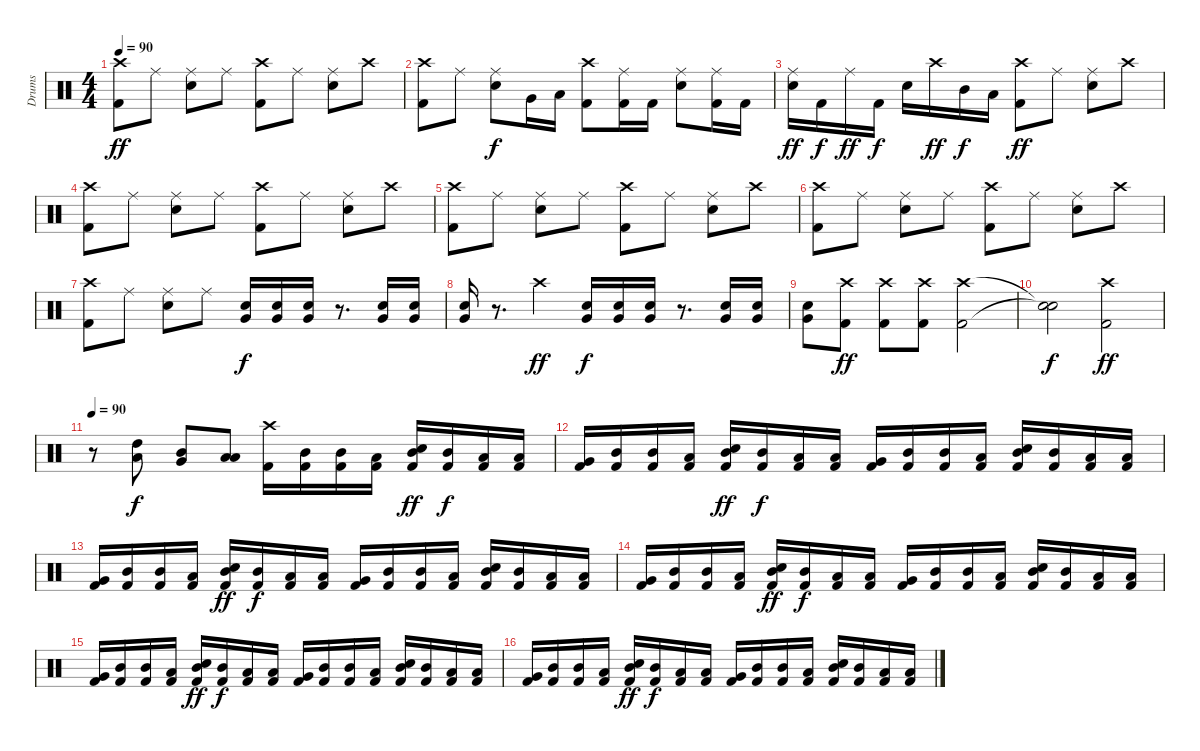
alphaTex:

\track ("Drums" "Drums") {instrument percussion}
\staff {score}
\articulation defaults
\ts (4 4)
\tempo 90
\clef neutral
\ks c
("Crash high (hit)" "Kick (hit) 2").8{dy ff} "Ride (middle)".8 ("Ride (middle)" "Electric Snare (hit)").8 "Ride (middle)".8 ("Crash high (hit)" "Kick (hit) 2").8 "Ride (middle)".8 ("Ride (middle)" "Electric Snare (hit)").8 "Crash high (hit)".8 |
("Crash high (hit)" "Kick (hit) 2").8 "Ride (middle)".8 ("Ride (middle)" "Electric Snare (hit)").8{dy f} "Very Low Tom (hit)".16 "Low Floor Tom (hit)".16 ("Crash high (hit)" "Kick (hit) 2").8 ("Ride (middle)" "Kick (hit) 2").16 "Kick (hit) 2".16 ("Ride (middle)" "Electric Snare (hit)").8 ("Ride (middle)" "Kick (hit) 2").16 "Kick (hit) 2".16 |
("Ride (middle)" "Electric Snare (hit)").16{dy ff} "Kick (hit) 2".16{dy f} "Ride (middle)".16{dy ff} "Kick (hit) 2".16{dy f} "Electric Snare (hit)".16 "Crash high (hit)".16{dy ff} "Mid Tom (hit)".16{dy f} "Low Tom (hit)".16 ("Crash high (hit)" "Kick (hit) 2").8{dy ff} "Ride (middle)".8 ("Ride (middle)" "Electric Snare (hit)").8 "Crash high (hit)".8 |
("Crash high (hit)" "Kick (hit) 2").8 "Ride (middle)".8 ("Ride (middle)" "Electric Snare (hit)").8 "Ride (middle)".8 ("Crash high (hit)" "Kick (hit) 2").8 "Ride (middle)".8 ("Ride (middle)" "Electric Snare (hit)").8 "Crash high (hit)".8 |
("Crash high (hit)" "Kick (hit) 2").8 "Ride (middle)".8 ("Ride (middle)" "Electric Snare (hit)").8 "Ride (middle)".8 ("Crash high (hit)" "Kick (hit) 2").8 "Ride (middle)".8 ("Ride (middle)" "Electric Snare (hit)").8 "Crash high (hit)".8 |
("Crash high (hit)" "Kick (hit) 2").8 "Ride (middle)".8 ("Ride (middle)" "Electric Snare (hit)").8 "Ride (middle)".8 ("Crash high (hit)" "Kick (hit) 2").8 "Ride (middle)".8 ("Ride (middle)" "Electric Snare (hit)").8 "Crash high (hit)".8 |
("Crash high (hit)" "Kick (hit) 2").8 "Ride (middle)".8 ("Ride (middle)" "Electric Snare (hit)").8 "Ride (middle)".8 ("Very Low Tom (hit)" "Electric Snare (hit)").16{dy f} ("Very Low Tom (hit)" "Electric Snare (hit)").16 ("Very Low Tom (hit)" "Electric Snare (hit)").16 r.8{d} ("Very Low Tom (hit)" "Electric Snare (hit)").16 ("Very Low Tom (hit)" "Electric Snare (hit)").16 |
("Very Low Tom (hit)" "Electric Snare (hit)").16 r.8{d} "Crash high (hit)".4{dy ff} ("Very Low Tom (hit)" "Electric Snare (hit)").16{dy f} ("Very Low Tom (hit)" "Electric Snare (hit)").16 ("Very Low Tom (hit)" "Electric Snare (hit)").16 r.8{d} ("Very Low Tom (hit)" "Electric Snare (hit)").16 ("Very Low Tom (hit)" "Electric Snare (hit)").16 |
("Very Low Tom (hit)" "Electric Snare (hit)").8 ("Crash high (hit)" "Kick (hit) 2").8{dy ff} ("Crash high (hit)" "Kick (hit) 2").8 ("Crash high (hit)" "Kick (hit) 2").8 ("Crash high (hit)" "Kick (hit) 2").2 |
("Snare (hit)"{t} "Snare (hit)"{t}).2{dy f} ("Crash high (hit)" "Kick (hit) 2").2{dy ff} |
\tempo 90
r.8 ("High Tom (hit)" "Low Tom (hit)").8{dy f} ("Mid Tom (hit)" "Very Low Tom (hit)").8 ("Low Tom (hit)" "Low Floor Tom (hit)").8 ("Crash high (hit)" "Kick (hit) 2").16 ("Mid Tom (hit)" "Kick (hit) 2").16 ("Mid Tom (hit)" "Kick (hit) 2").16 ("Low Tom (hit)" "Kick (hit) 2").16 ("Mid Tom (hit)" "Electric Snare (hit)" "Kick (hit) 2").16{dy ff} ("Mid Tom (hit)" "Kick (hit) 2").16{dy f} ("Low Tom (hit)" "Kick (hit) 2").16 ("Low Tom (hit)" "Kick (hit) 2").16 |
("Very Low Tom (hit)" "Kick (hit) 2").16 ("Mid Tom (hit)" "Kick (hit) 2").16 ("Mid Tom (hit)" "Kick (hit) 2").16 ("Low Tom (hit)" "Kick (hit) 2").16 ("Mid Tom (hit)" "Electric Snare (hit)" "Kick (hit) 2").16{dy ff} ("Mid Tom (hit)" "Kick (hit) 2").16{dy f} ("Low Tom (hit)" "Kick (hit) 2").16 ("Low Tom (hit)" "Kick (hit) 2").16 ("Very Low Tom (hit)" "Kick (hit) 2").16 ("Mid Tom (hit)" "Kick (hit) 2").16 ("Mid Tom (hit)" "Kick (hit) 2").16 ("Low Tom (hit)" "Kick (hit) 2").16 ("Mid Tom (hit)" "Electric Snare (hit)" "Kick (hit) 2").16 ("Mid Tom (hit)" "Kick (hit) 2").16 ("Low Tom (hit)" "Kick (hit) 2").16 ("Low Tom (hit)" "Kick (hit) 2").16 |
("Very Low Tom (hit)" "Kick (hit) 2").16 ("Mid Tom (hit)" "Kick (hit) 2").16 ("Mid Tom (hit)" "Kick (hit) 2").16 ("Low Tom (hit)" "Kick (hit) 2").16 ("Mid Tom (hit)" "Electric Snare (hit)" "Kick (hit) 2").16{dy ff} ("Mid Tom (hit)" "Kick (hit) 2").16{dy f} ("Low Tom (hit)" "Kick (hit) 2").16 ("Low Tom (hit)" "Kick (hit) 2").16 ("Very Low Tom (hit)" "Kick (hit) 2").16 ("Mid Tom (hit)" "Kick (hit) 2").16 ("Mid Tom (hit)" "Kick (hit) 2").16 ("Low Tom (hit)" "Kick (hit) 2").16 ("Mid Tom (hit)" "Electric Snare (hit)" "Kick (hit) 2").16 ("Mid Tom (hit)" "Kick (hit) 2").16 ("Low Tom (hit)" "Kick (hit) 2").16 ("Low Tom (hit)" "Kick (hit) 2").16 |
("Very Low Tom (hit)" "Kick (hit) 2").16 ("Mid Tom (hit)" "Kick (hit) 2").16 ("Mid Tom (hit)" "Kick (hit) 2").16 ("Low Tom (hit)" "Kick (hit) 2").16 ("Mid Tom (hit)" "Electric Snare (hit)" "Kick (hit) 2").16{dy ff} ("Mid Tom (hit)" "Kick (hit) 2").16{dy f} ("Low Tom (hit)" "Kick (hit) 2").16 ("Low Tom (hit)" "Kick (hit) 2").16 ("Very Low Tom (hit)" "Kick (hit) 2").16 ("Mid Tom (hit)" "Kick (hit) 2").16 ("Mid Tom (hit)" "Kick (hit) 2").16 ("Low Tom (hit)" "Kick (hit) 2").16 ("Mid Tom (hit)" "Electric Snare (hit)" "Kick (hit) 2").16 ("Mid Tom (hit)" "Kick (hit) 2").16 ("Low Tom (hit)" "Kick (hit) 2").16 ("Low Tom (hit)" "Kick (hit) 2").16 |
("Very Low Tom (hit)" "Kick (hit) 2").16 ("Mid Tom (hit)" "Kick (hit) 2").16 ("Mid Tom (hit)" "Kick (hit) 2").16 ("Low Tom (hit)" "Kick (hit) 2").16 ("Mid Tom (hit)" "Electric Snare (hit)" "Kick (hit) 2").16{dy ff} ("Mid Tom (hit)" "Kick (hit) 2").16{dy f} ("Low Tom (hit)" "Kick (hit) 2").16 ("Low Tom (hit)" "Kick (hit) 2").16 ("Very Low Tom (hit)" "Kick (hit) 2").16 ("Mid Tom (hit)" "Kick (hit) 2").16 ("Mid Tom (hit)" "Kick (hit) 2").16 ("Low Tom (hit)" "Kick (hit) 2").16 ("Mid Tom (hit)" "Electric Snare (hit)" "Kick (hit) 2").16 ("Mid Tom (hit)" "Kick (hit) 2").16 ("Low Tom (hit)" "Kick (hit) 2").16 ("Low Tom (hit)" "Kick (hit) 2").16 |
("Very Low Tom (hit)" "Kick (hit) 2").16 ("Mid Tom (hit)" "Kick (hit) 2").16 ("Mid Tom (hit)" "Kick (hit) 2").16 ("Low Tom (hit)" "Kick (hit) 2").16 ("Mid Tom (hit)" "Electric Snare (hit)" "Kick (hit) 2").16{dy ff} ("Mid Tom (hit)" "Kick (hit) 2").16{dy f} ("Low Tom (hit)" "Kick (hit) 2").16 ("Low Tom (hit)" "Kick (hit) 2").16 ("Very Low Tom (hit)" "Kick (hit) 2").16 ("Mid Tom (hit)" "Kick (hit) 2").16 ("Mid Tom (hit)" "Kick (hit) 2").16 ("Low Tom (hit)" "Kick (hit) 2").16 ("Mid Tom (hit)" "Electric Snare (hit)" "Kick (hit) 2").16 ("Mid Tom (hit)" "Kick (hit) 2").16 ("Low Tom (hit)" "Kick (hit) 2").16 ("Low Tom (hit)" "Kick (hit) 2").16
